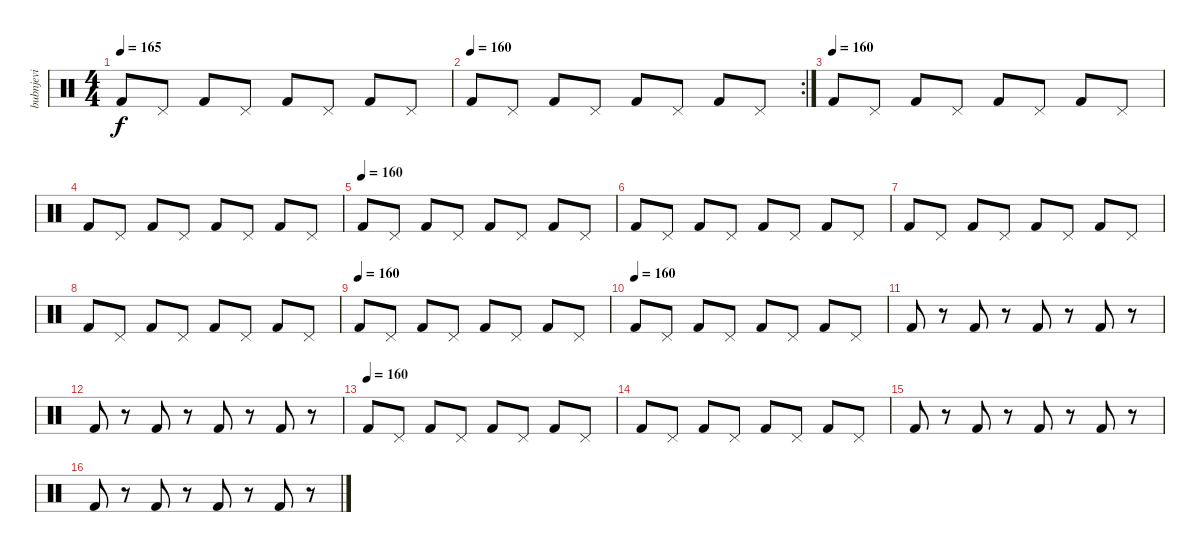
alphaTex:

\track ("bubnjevi" "bubnjevi") {instrument percussion}
\staff {score}
\articulation defaults
\ts (4 4)
\tempo 165
\clef neutral
\ks c "Kick (hit) 2".8{dy f} "Pedal Hi-Hat (hit)".8 "Kick (hit) 2".8 "Pedal Hi-Hat (hit)".8 "Kick (hit) 2".8 "Pedal Hi-Hat (hit)".8 "Kick (hit) 2".8 "Pedal Hi-Hat (hit)".8
|
\rc 2
\tempo 165
\tempo (160)
"Kick (hit) 2".8 "Pedal Hi-Hat (hit)".8 "Kick (hit) 2".8 "Pedal Hi-Hat (hit)".8 "Kick (hit) 2".8 "Pedal Hi-Hat (hit)".8 "Kick (hit) 2".8 "Pedal Hi-Hat (hit)".8 |
\tempo 165
\tempo (160)
"Kick (hit) 2".8 "Pedal Hi-Hat (hit)".8 "Kick (hit) 2".8 "Pedal Hi-Hat (hit)".8 "Kick (hit) 2".8 "Pedal Hi-Hat (hit)".8 "Kick (hit) 2".8 "Pedal Hi-Hat (hit)".8 |
"Kick (hit) 2".8 "Pedal Hi-Hat (hit)".8 "Kick (hit) 2".8 "Pedal Hi-Hat (hit)".8 "Kick (hit) 2".8 "Pedal Hi-Hat (hit)".8 "Kick (hit) 2".8 "Pedal Hi-Hat (hit)".8 |
\tempo 165
\tempo (160)
"Kick (hit) 2".8 "Pedal Hi-Hat (hit)".8 "Kick (hit) 2".8 "Pedal Hi-Hat (hit)".8 "Kick (hit) 2".8 "Pedal Hi-Hat (hit)".8 "Kick (hit) 2".8 "Pedal Hi-Hat (hit)".8 |
"Kick (hit) 2".8 "Pedal Hi-Hat (hit)".8 "Kick (hit) 2".8 "Pedal Hi-Hat (hit)".8 "Kick (hit) 2".8 "Pedal Hi-Hat (hit)".8 "Kick (hit) 2".8 "Pedal Hi-Hat (hit)".8 |
"Kick (hit) 2".8 "Pedal Hi-Hat (hit)".8 "Kick (hit) 2".8 "Pedal Hi-Hat (hit)".8 "Kick (hit) 2".8 "Pedal Hi-Hat (hit)".8 "Kick (hit) 2".8 "Pedal Hi-Hat (hit)".8 |
"Kick (hit) 2".8 "Pedal Hi-Hat (hit)".8 "Kick (hit) 2".8 "Pedal Hi-Hat (hit)".8 "Kick (hit) 2".8 "Pedal Hi-Hat (hit)".8 "Kick (hit) 2".8 "Pedal Hi-Hat (hit)".8 |
\tempo 165
\tempo (160)
"Kick (hit) 2".8 "Pedal Hi-Hat (hit)".8 "Kick (hit) 2".8 "Pedal Hi-Hat (hit)".8 "Kick (hit) 2".8 "Pedal Hi-Hat (hit)".8 "Kick (hit) 2".8 "Pedal Hi-Hat (hit)".8 |
\tempo 165
\tempo (160)
"Kick (hit) 2".8 "Pedal Hi-Hat (hit)".8 "Kick (hit) 2".8 "Pedal Hi-Hat (hit)".8 "Kick (hit) 2".8 "Pedal Hi-Hat (hit)".8 "Kick (hit) 2".8 "Pedal Hi-Hat (hit)".8 |
"Kick (hit) 2".8 r.8 "Kick (hit) 2".8 r.8 "Kick (hit) 2".8 r.8 "Kick (hit) 2".8 r.8 |
"Kick (hit) 2".8 r.8 "Kick (hit) 2".8 r.8 "Kick (hit) 2".8 r.8 "Kick (hit) 2".8 r.8 |
\tempo (160)
"Kick (hit) 2".8 "Pedal Hi-Hat (hit)".8 "Kick (hit) 2".8 "Pedal Hi-Hat (hit)".8 "Kick (hit) 2".8 "Pedal Hi-Hat (hit)".8 "Kick (hit) 2".8 "Pedal Hi-Hat (hit)".8 |
"Kick (hit) 2".8 "Pedal Hi-Hat (hit)".8 "Kick (hit) 2".8 "Pedal Hi-Hat (hit)".8 "Kick (hit) 2".8 "Pedal Hi-Hat (hit)".8 "Kick (hit) 2".8 "Pedal Hi-Hat (hit)".8 |
"Kick (hit) 2".8 r.8 "Kick (hit) 2".8 r.8 "Kick (hit) 2".8 r.8 "Kick (hit) 2".8 r.8 |
"Kick (hit) 2".8 r.8 "Kick (hit) 2".8 r.8 "Kick (hit) 2".8 r.8 "Kick (hit) 2".8 r.8
